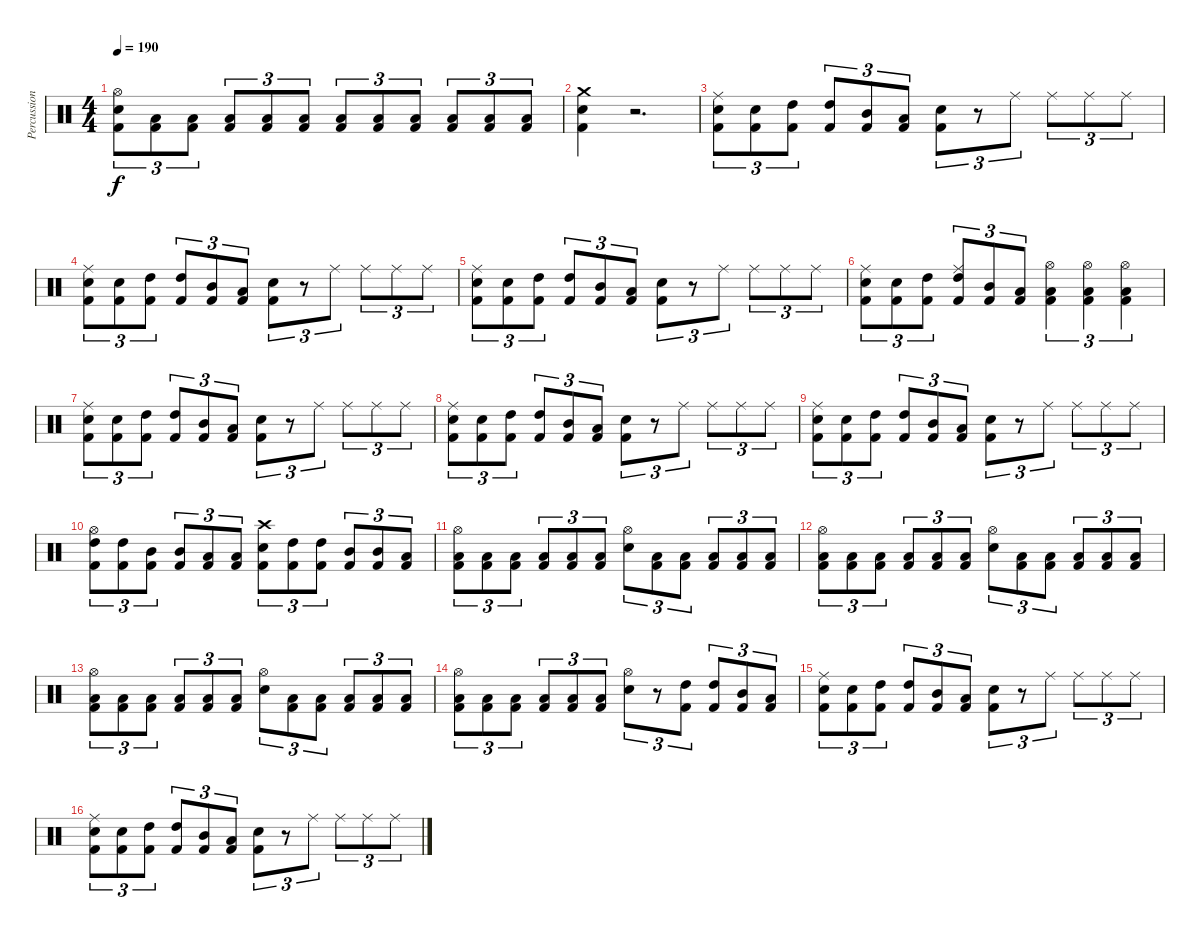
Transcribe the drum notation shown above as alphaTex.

\track ("Percussions" "Percussion") {instrument percussion}
\staff {score}
\articulation defaults
\ts (4 4)
\tempo 190
\clef neutral
\ks c
("Hi-Hat (open)" "Snare (hit) 2" "Kick (hit) 2").8{tu (3 2) dy f} ("Low Floor Tom (hit)" "Kick (hit) 2").8{tu (3 2)} ("Low Floor Tom (hit)" "Kick (hit) 2").8{tu (3 2)} ("Low Floor Tom (hit)" "Kick (hit) 2").8{tu (3 2)} ("Low Floor Tom (hit)" "Kick (hit) 2").8{tu (3 2)} ("Low Floor Tom (hit)" "Kick (hit) 2").8{tu (3 2)} ("Low Floor Tom (hit)" "Kick (hit) 2").8{tu (3 2)} ("Low Floor Tom (hit)" "Kick (hit) 2").8{tu (3 2)} ("Low Floor Tom (hit)" "Kick (hit) 2").8{tu (3 2)} ("Low Floor Tom (hit)" "Kick (hit) 2").8{tu (3 2)} ("Low Floor Tom (hit)" "Kick (hit) 2").8{tu (3 2)} ("Low Floor Tom (hit)" "Kick (hit) 2").8{tu (3 2)} |
("Crash medium (hit)" "Snare (hit) 2" "Kick (hit) 2").4 r.2{d} |
("Ride (middle)" "Snare (hit) 2" "Kick (hit) 2").8{tu (3 2)} ("Snare (hit) 2" "Kick (hit) 2").8{tu (3 2)} ("High Tom (hit)" "Kick (hit) 2").8{tu (3 2)} ("High Tom (hit)" "Kick (hit) 2").8{tu (3 2)} ("Mid Tom (hit)" "Kick (hit) 2").8{tu (3 2)} ("Low Tom (hit)" "Kick (hit) 2").8{tu (3 2)} ("Snare (hit) 2" "Kick (hit) 2").8{tu (3 2)} r.8{tu (3 2)} "Ride (middle)".8{tu (3 2)} "Ride (middle)".8{tu (3 2)} "Ride (middle)".8{tu (3 2)} "Ride (middle)".8{tu (3 2)} |
("Ride (middle)" "Snare (hit) 2" "Kick (hit) 2").8{tu (3 2)} ("Snare (hit) 2" "Kick (hit) 2").8{tu (3 2)} ("High Tom (hit)" "Kick (hit) 2").8{tu (3 2)} ("High Tom (hit)" "Kick (hit) 2").8{tu (3 2)} ("Mid Tom (hit)" "Kick (hit) 2").8{tu (3 2)} ("Low Tom (hit)" "Kick (hit) 2").8{tu (3 2)} ("Snare (hit) 2" "Kick (hit) 2").8{tu (3 2)} r.8{tu (3 2)} "Ride (middle)".8{tu (3 2)} "Ride (middle)".8{tu (3 2)} "Ride (middle)".8{tu (3 2)} "Ride (middle)".8{tu (3 2)} |
("Ride (middle)" "Snare (hit) 2" "Kick (hit) 2").8{tu (3 2)} ("Snare (hit) 2" "Kick (hit) 2").8{tu (3 2)} ("High Tom (hit)" "Kick (hit) 2").8{tu (3 2)} ("High Tom (hit)" "Kick (hit) 2").8{tu (3 2)} ("Mid Tom (hit)" "Kick (hit) 2").8{tu (3 2)} ("Low Tom (hit)" "Kick (hit) 2").8{tu (3 2)} ("Snare (hit) 2" "Kick (hit) 2").8{tu (3 2)} r.8{tu (3 2)} "Ride (middle)".8{tu (3 2)} "Ride (middle)".8{tu (3 2)} "Ride (middle)".8{tu (3 2)} "Ride (middle)".8{tu (3 2)} |
("Ride (middle)" "Snare (hit) 2" "Kick (hit) 2").8{tu (3 2)} ("Snare (hit) 2" "Kick (hit) 2").8{tu (3 2)} ("High Tom (hit)" "Kick (hit) 2").8{tu (3 2)} ("Ride (middle)" "High Tom (hit)" "Kick (hit) 2").8{tu (3 2)} ("Mid Tom (hit)" "Kick (hit) 2").8{tu (3 2)} ("Low Tom (hit)" "Kick (hit) 2").8{tu (3 2)} ("Hi-Hat (open)" "Low Floor Tom (hit)" "Kick (hit) 2").4{tu (3 2)} ("Hi-Hat (open)" "Low Floor Tom (hit)" "Kick (hit) 2").4{tu (3 2)} ("Hi-Hat (open)" "Low Floor Tom (hit)" "Kick (hit) 2").4{tu (3 2)} |
("Ride (middle)" "Snare (hit) 2" "Kick (hit) 2").8{tu (3 2)} ("Snare (hit) 2" "Kick (hit) 2").8{tu (3 2)} ("High Tom (hit)" "Kick (hit) 2").8{tu (3 2)} ("High Tom (hit)" "Kick (hit) 2").8{tu (3 2)} ("Mid Tom (hit)" "Kick (hit) 2").8{tu (3 2)} ("Low Tom (hit)" "Kick (hit) 2").8{tu (3 2)} ("Snare (hit) 2" "Kick (hit) 2").8{tu (3 2)} r.8{tu (3 2)} "Ride (middle)".8{tu (3 2)} "Ride (middle)".8{tu (3 2)} "Ride (middle)".8{tu (3 2)} "Ride (middle)".8{tu (3 2)} |
("Ride (middle)" "Snare (hit) 2" "Kick (hit) 2").8{tu (3 2)} ("Snare (hit) 2" "Kick (hit) 2").8{tu (3 2)} ("High Tom (hit)" "Kick (hit) 2").8{tu (3 2)} ("High Tom (hit)" "Kick (hit) 2").8{tu (3 2)} ("Mid Tom (hit)" "Kick (hit) 2").8{tu (3 2)} ("Low Tom (hit)" "Kick (hit) 2").8{tu (3 2)} ("Snare (hit) 2" "Kick (hit) 2").8{tu (3 2)} r.8{tu (3 2)} "Ride (middle)".8{tu (3 2)} "Ride (middle)".8{tu (3 2)} "Ride (middle)".8{tu (3 2)} "Ride (middle)".8{tu (3 2)} |
("Ride (middle)" "Snare (hit) 2" "Kick (hit) 2").8{tu (3 2)} ("Snare (hit) 2" "Kick (hit) 2").8{tu (3 2)} ("High Tom (hit)" "Kick (hit) 2").8{tu (3 2)} ("High Tom (hit)" "Kick (hit) 2").8{tu (3 2)} ("Mid Tom (hit)" "Kick (hit) 2").8{tu (3 2)} ("Low Tom (hit)" "Kick (hit) 2").8{tu (3 2)} ("Snare (hit) 2" "Kick (hit) 2").8{tu (3 2)} r.8{tu (3 2)} "Ride (middle)".8{tu (3 2)} "Ride (middle)".8{tu (3 2)} "Ride (middle)".8{tu (3 2)} "Ride (middle)".8{tu (3 2)} |
("Hi-Hat (open)" "High Tom (hit)" "Kick (hit) 2").8{tu (3 2)} ("High Tom (hit)" "Kick (hit) 2").8{tu (3 2)} ("Mid Tom (hit)" "Kick (hit) 2").8{tu (3 2)} ("Mid Tom (hit)" "Kick (hit) 2").8{tu (3 2)} ("Low Tom (hit)" "Kick (hit) 2").8{tu (3 2)} ("Low Tom (hit)" "Kick (hit) 2").8{tu (3 2)} ("Crash high (hit)" "Snare (hit) 2" "Kick (hit) 2").8{tu (3 2)} ("High Tom (hit)" "Kick (hit) 2").8{tu (3 2)} ("High Tom (hit)" "Kick (hit) 2").8{tu (3 2)} ("Mid Tom (hit)" "Kick (hit) 2").8{tu (3 2)} ("Mid Tom (hit)" "Kick (hit) 2").8{tu (3 2)} ("Low Tom (hit)" "Kick (hit) 2").8{tu (3 2)} |
("Hi-Hat (open)" "Low Floor Tom (hit)" "Kick (hit) 2").8{tu (3 2)} ("Low Floor Tom (hit)" "Kick (hit) 2").8{tu (3 2)} ("Low Floor Tom (hit)" "Kick (hit) 2").8{tu (3 2)} ("Low Floor Tom (hit)" "Kick (hit) 2").8{tu (3 2)} ("Low Floor Tom (hit)" "Kick (hit) 2").8{tu (3 2)} ("Low Floor Tom (hit)" "Kick (hit) 2").8{tu (3 2)} ("Hi-Hat (open)" "Snare (hit) 2").8{tu (3 2)} ("Low Floor Tom (hit)" "Kick (hit) 2").8{tu (3 2)} ("Low Floor Tom (hit)" "Kick (hit) 2").8{tu (3 2)} ("Low Floor Tom (hit)" "Kick (hit) 2").8{tu (3 2)} ("Low Floor Tom (hit)" "Kick (hit) 2").8{tu (3 2)} ("Low Floor Tom (hit)" "Kick (hit) 2").8{tu (3 2)} |
("Hi-Hat (open)" "Low Floor Tom (hit)" "Kick (hit) 2").8{tu (3 2)} ("Low Floor Tom (hit)" "Kick (hit) 2").8{tu (3 2)} ("Low Floor Tom (hit)" "Kick (hit) 2").8{tu (3 2)} ("Low Floor Tom (hit)" "Kick (hit) 2").8{tu (3 2)} ("Low Floor Tom (hit)" "Kick (hit) 2").8{tu (3 2)} ("Low Floor Tom (hit)" "Kick (hit) 2").8{tu (3 2)} ("Hi-Hat (open)" "Snare (hit) 2").8{tu (3 2)} ("Low Floor Tom (hit)" "Kick (hit) 2").8{tu (3 2)} ("Low Floor Tom (hit)" "Kick (hit) 2").8{tu (3 2)} ("Low Floor Tom (hit)" "Kick (hit) 2").8{tu (3 2)} ("Low Floor Tom (hit)" "Kick (hit) 2").8{tu (3 2)} ("Low Floor Tom (hit)" "Kick (hit) 2").8{tu (3 2)} |
("Hi-Hat (open)" "Low Floor Tom (hit)" "Kick (hit) 2").8{tu (3 2)} ("Low Floor Tom (hit)" "Kick (hit) 2").8{tu (3 2)} ("Low Floor Tom (hit)" "Kick (hit) 2").8{tu (3 2)} ("Low Floor Tom (hit)" "Kick (hit) 2").8{tu (3 2)} ("Low Floor Tom (hit)" "Kick (hit) 2").8{tu (3 2)} ("Low Floor Tom (hit)" "Kick (hit) 2").8{tu (3 2)} ("Hi-Hat (open)" "Snare (hit) 2").8{tu (3 2)} ("Low Floor Tom (hit)" "Kick (hit) 2").8{tu (3 2)} ("Low Floor Tom (hit)" "Kick (hit) 2").8{tu (3 2)} ("Low Floor Tom (hit)" "Kick (hit) 2").8{tu (3 2)} ("Low Floor Tom (hit)" "Kick (hit) 2").8{tu (3 2)} ("Low Floor Tom (hit)" "Kick (hit) 2").8{tu (3 2)} |
("Hi-Hat (open)" "Low Floor Tom (hit)" "Kick (hit) 2").8{tu (3 2)} ("Low Floor Tom (hit)" "Kick (hit) 2").8{tu (3 2)} ("Low Floor Tom (hit)" "Kick (hit) 2").8{tu (3 2)} ("Low Floor Tom (hit)" "Kick (hit) 2").8{tu (3 2)} ("Low Floor Tom (hit)" "Kick (hit) 2").8{tu (3 2)} ("Low Floor Tom (hit)" "Kick (hit) 2").8{tu (3 2)} ("Hi-Hat (open)" "Snare (hit) 2").8{tu (3 2)} r.8{tu (3 2)} ("High Tom (hit)" "Kick (hit) 2").8{tu (3 2)} ("High Tom (hit)" "Kick (hit) 2").8{tu (3 2)} ("Mid Tom (hit)" "Kick (hit) 2").8{tu (3 2)} ("Low Tom (hit)" "Kick (hit) 2").8{tu (3 2)} |
("Ride (middle)" "Snare (hit) 2" "Kick (hit) 2").8{tu (3 2)} ("Snare (hit) 2" "Kick (hit) 2").8{tu (3 2)} ("High Tom (hit)" "Kick (hit) 2").8{tu (3 2)} ("High Tom (hit)" "Kick (hit) 2").8{tu (3 2)} ("Mid Tom (hit)" "Kick (hit) 2").8{tu (3 2)} ("Low Tom (hit)" "Kick (hit) 2").8{tu (3 2)} ("Snare (hit) 2" "Kick (hit) 2").8{tu (3 2)} r.8{tu (3 2)} "Ride (middle)".8{tu (3 2)} "Ride (middle)".8{tu (3 2)} "Ride (middle)".8{tu (3 2)} "Ride (middle)".8{tu (3 2)} |
("Ride (middle)" "Snare (hit) 2" "Kick (hit) 2").8{tu (3 2)} ("Snare (hit) 2" "Kick (hit) 2").8{tu (3 2)} ("High Tom (hit)" "Kick (hit) 2").8{tu (3 2)} ("High Tom (hit)" "Kick (hit) 2").8{tu (3 2)} ("Mid Tom (hit)" "Kick (hit) 2").8{tu (3 2)} ("Low Tom (hit)" "Kick (hit) 2").8{tu (3 2)} ("Snare (hit) 2" "Kick (hit) 2").8{tu (3 2)} r.8{tu (3 2)} "Ride (middle)".8{tu (3 2)} "Ride (middle)".8{tu (3 2)} "Ride (middle)".8{tu (3 2)} "Ride (middle)".8{tu (3 2)}
